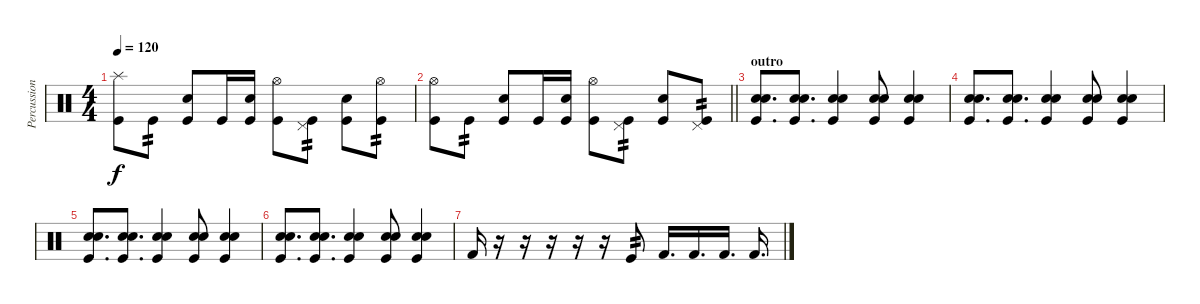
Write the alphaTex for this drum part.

\track ("Percussion" "Percussion") {instrument percussion}
\staff {score}
\articulation defaults
\ts (4 4)
\tempo 120
\clef neutral
\ks c
("Splash (hit)" "Kick (hit)").8{dy f} "Kick (hit)".8{tp 2} ("Electric Snare (hit)" "Kick (hit)").8 "Kick (hit)".16 ("Electric Snare (hit)" "Kick (hit)").16 ("Hi-Hat (open)" "Kick (hit)").8 ("Pedal Hi-Hat (hit)" "Kick (hit)").8{tp 2} ("Electric Snare (hit)" "Kick (hit)").8 ("Hi-Hat (open)" "Kick (hit)").8{tp 2} |
\barLineRight lightlight
("Hi-Hat (open)" "Kick (hit)").8 "Kick (hit)".8{tp 2} ("Electric Snare (hit)" "Kick (hit)").8 "Kick (hit)".16 ("Electric Snare (hit)" "Kick (hit)").16 ("Hi-Hat (open)" "Kick (hit)").8 ("Pedal Hi-Hat (hit)" "Kick (hit)").8{tp 2} ("Electric Snare (hit)" "Kick (hit)").8 ("Pedal Hi-Hat (hit)" "Kick (hit)").8{tp 2} |
\section ("" "outro")
("Snare (hit) 2" "Electric Snare (hit)" "Kick (hit)").8{d} ("Snare (hit) 2" "Electric Snare (hit)" "Kick (hit)").8{d} ("Snare (hit) 2" "Electric Snare (hit)" "Kick (hit)").4 ("Snare (hit) 2" "Electric Snare (hit)" "Kick (hit)").8 ("Snare (hit) 2" "Electric Snare (hit)" "Kick (hit)").4 |
("Snare (hit) 2" "Electric Snare (hit)" "Kick (hit)").8{d} ("Snare (hit) 2" "Electric Snare (hit)" "Kick (hit)").8{d} ("Snare (hit) 2" "Electric Snare (hit)" "Kick (hit)").4 ("Snare (hit) 2" "Electric Snare (hit)" "Kick (hit)").8 ("Snare (hit) 2" "Electric Snare (hit)" "Kick (hit)").4 |
("Snare (hit) 2" "Electric Snare (hit)" "Kick (hit)").8{d} ("Snare (hit) 2" "Electric Snare (hit)" "Kick (hit)").8{d} ("Snare (hit) 2" "Electric Snare (hit)" "Kick (hit)").4 ("Snare (hit) 2" "Electric Snare (hit)" "Kick (hit)").8 ("Snare (hit) 2" "Electric Snare (hit)" "Kick (hit)").4 |
("Snare (hit) 2" "Electric Snare (hit)" "Kick (hit)").8{d} ("Snare (hit) 2" "Electric Snare (hit)" "Kick (hit)").8{d} ("Snare (hit) 2" "Electric Snare (hit)" "Kick (hit)").4 ("Snare (hit) 2" "Electric Snare (hit)" "Kick (hit)").8 ("Snare (hit) 2" "Electric Snare (hit)" "Kick (hit)").4 |
"Kick (hit) 2".16 r.16 r.16 r.16 r.16 r.16 "Kick (hit)".8{tp 2} "Kick (hit) 2".16{d} "Kick (hit) 2".16{d} "Kick (hit) 2".16{d} "Kick (hit) 2".16{d}
